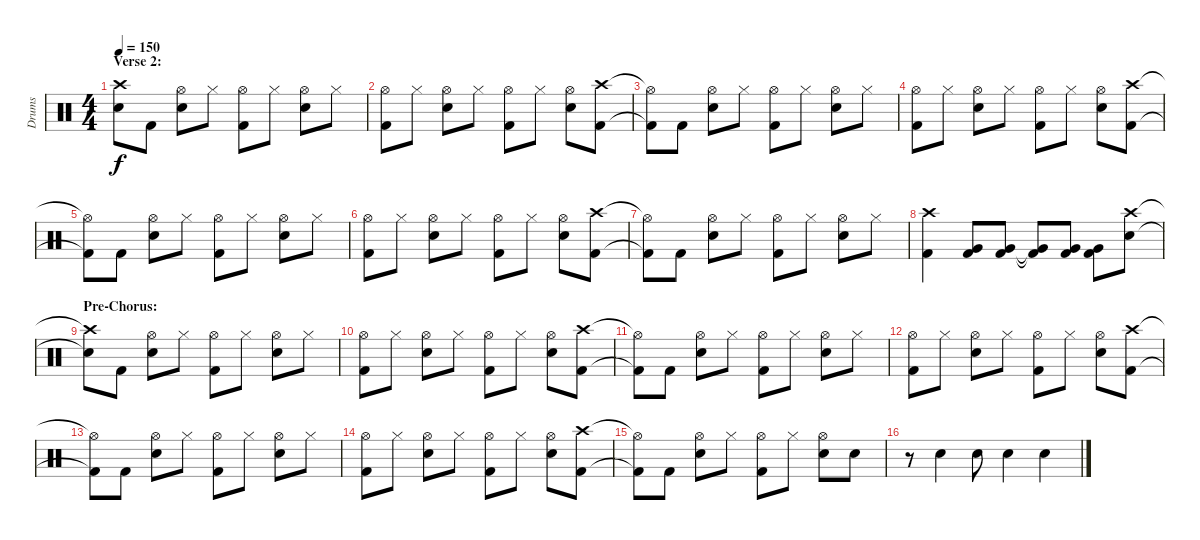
\track ("Drums" "Drums") {instrument percussion}
\staff {score}
\articulation defaults
\ts (4 4)
\section ("" "Verse 2:")
\tempo 150
\clef neutral
\ks c
("Crash high (hit)"{t} "Snare (hit)"{t}).8{dy f} "Kick (hit) 2".8 ("Hi-Hat (open)" "Snare (hit) 2").8 "Hi-Hat (closed)".8 ("Hi-Hat (open)" "Kick (hit) 2").8 "Hi-Hat (closed)".8 ("Hi-Hat (open)" "Snare (hit) 2").8 "Hi-Hat (closed)".8 |
("Hi-Hat (open)" "Kick (hit) 2").8 "Hi-Hat (closed)".8 ("Hi-Hat (open)" "Snare (hit) 2").8 "Hi-Hat (closed)".8 ("Hi-Hat (open)" "Kick (hit) 2").8 "Hi-Hat (closed)".8 ("Hi-Hat (open)" "Snare (hit) 2").8 ("Crash high (hit)" "Kick (hit) 2").8 |
("Hi-Hat (open)"{t} "Kick (hit) 2"{t}).8 "Kick (hit) 2".8 ("Hi-Hat (open)" "Snare (hit) 2").8 "Hi-Hat (closed)".8 ("Hi-Hat (open)" "Kick (hit) 2").8 "Hi-Hat (closed)".8 ("Hi-Hat (open)" "Snare (hit) 2").8 "Hi-Hat (closed)".8 |
("Hi-Hat (open)" "Kick (hit) 2").8 "Hi-Hat (closed)".8 ("Hi-Hat (open)" "Snare (hit) 2").8 "Hi-Hat (closed)".8 ("Hi-Hat (open)" "Kick (hit) 2").8 "Hi-Hat (closed)".8 ("Hi-Hat (open)" "Snare (hit) 2").8 ("Crash high (hit)" "Kick (hit) 2").8 |
("Hi-Hat (open)"{t} "Kick (hit) 2"{t}).8 "Kick (hit) 2".8 ("Hi-Hat (open)" "Snare (hit) 2").8 "Hi-Hat (closed)".8 ("Hi-Hat (open)" "Kick (hit) 2").8 "Hi-Hat (closed)".8 ("Hi-Hat (open)" "Snare (hit) 2").8 "Hi-Hat (closed)".8 |
("Hi-Hat (open)" "Kick (hit) 2").8 "Hi-Hat (closed)".8 ("Hi-Hat (open)" "Snare (hit) 2").8 "Hi-Hat (closed)".8 ("Hi-Hat (open)" "Kick (hit) 2").8 "Hi-Hat (closed)".8 ("Hi-Hat (open)" "Snare (hit) 2").8 ("Crash high (hit)" "Kick (hit) 2").8 |
("Hi-Hat (open)"{t} "Kick (hit) 2"{t}).8 "Kick (hit) 2".8 ("Hi-Hat (open)" "Snare (hit) 2").8 "Hi-Hat (closed)".8 ("Hi-Hat (open)" "Kick (hit) 2").8 "Hi-Hat (closed)".8 ("Hi-Hat (open)" "Snare (hit) 2").8 "Hi-Hat (closed)".8 |
("Crash high (hit)" "Kick (hit) 2").4 ("Very Low Tom (hit)" "Kick (hit) 2").8 ("Very Low Tom (hit)" "Kick (hit) 2").8 ("Very Low Tom (hit)"{t} "Kick (hit) 2"{t}).8 ("Very Low Tom (hit)" "Kick (hit) 2").8 ("Very Low Tom (hit)" "Kick (hit) 2").8 ("Crash high (hit)" "Snare (hit) 2").8 |
\section ("" "Pre-Chorus:")
("Crash high (hit)"{t} "Snare (hit)"{t}).8 "Kick (hit) 2".8 ("Hi-Hat (open)" "Snare (hit) 2").8 "Hi-Hat (closed)".8 ("Hi-Hat (open)" "Kick (hit) 2").8 "Hi-Hat (closed)".8 ("Hi-Hat (open)" "Snare (hit) 2").8 "Hi-Hat (closed)".8 |
("Hi-Hat (open)" "Kick (hit) 2").8 "Hi-Hat (closed)".8 ("Hi-Hat (open)" "Snare (hit) 2").8 "Hi-Hat (closed)".8 ("Hi-Hat (open)" "Kick (hit) 2").8 "Hi-Hat (closed)".8 ("Hi-Hat (open)" "Snare (hit) 2").8 ("Crash high (hit)" "Kick (hit) 2").8 |
("Hi-Hat (open)"{t} "Kick (hit) 2"{t}).8 "Kick (hit) 2".8 ("Hi-Hat (open)" "Snare (hit) 2").8 "Hi-Hat (closed)".8 ("Hi-Hat (open)" "Kick (hit) 2").8 "Hi-Hat (closed)".8 ("Hi-Hat (open)" "Snare (hit) 2").8 "Hi-Hat (closed)".8 |
("Hi-Hat (open)" "Kick (hit) 2").8 "Hi-Hat (closed)".8 ("Hi-Hat (open)" "Snare (hit) 2").8 "Hi-Hat (closed)".8 ("Hi-Hat (open)" "Kick (hit) 2").8 "Hi-Hat (closed)".8 ("Hi-Hat (open)" "Snare (hit) 2").8 ("Crash high (hit)" "Kick (hit) 2").8 |
("Hi-Hat (open)"{t} "Kick (hit) 2"{t}).8 "Kick (hit) 2".8 ("Hi-Hat (open)" "Snare (hit) 2").8 "Hi-Hat (closed)".8 ("Hi-Hat (open)" "Kick (hit) 2").8 "Hi-Hat (closed)".8 ("Hi-Hat (open)" "Snare (hit) 2").8 "Hi-Hat (closed)".8 |
("Hi-Hat (open)" "Kick (hit) 2").8 "Hi-Hat (closed)".8 ("Hi-Hat (open)" "Snare (hit) 2").8 "Hi-Hat (closed)".8 ("Hi-Hat (open)" "Kick (hit) 2").8 "Hi-Hat (closed)".8 ("Hi-Hat (open)" "Snare (hit) 2").8 ("Crash high (hit)" "Kick (hit) 2").8 |
("Hi-Hat (open)"{t} "Kick (hit) 2"{t}).8 "Kick (hit) 2".8 ("Hi-Hat (open)" "Snare (hit) 2").8 "Hi-Hat (closed)".8 ("Hi-Hat (open)" "Kick (hit) 2").8 "Hi-Hat (closed)".8 ("Hi-Hat (open)" "Snare (hit) 2").8 "Snare (hit) 2".8 |
r.8 "Snare (hit) 2".4 "Snare (hit) 2".8 "Snare (hit) 2".4 "Snare (hit) 2".4
